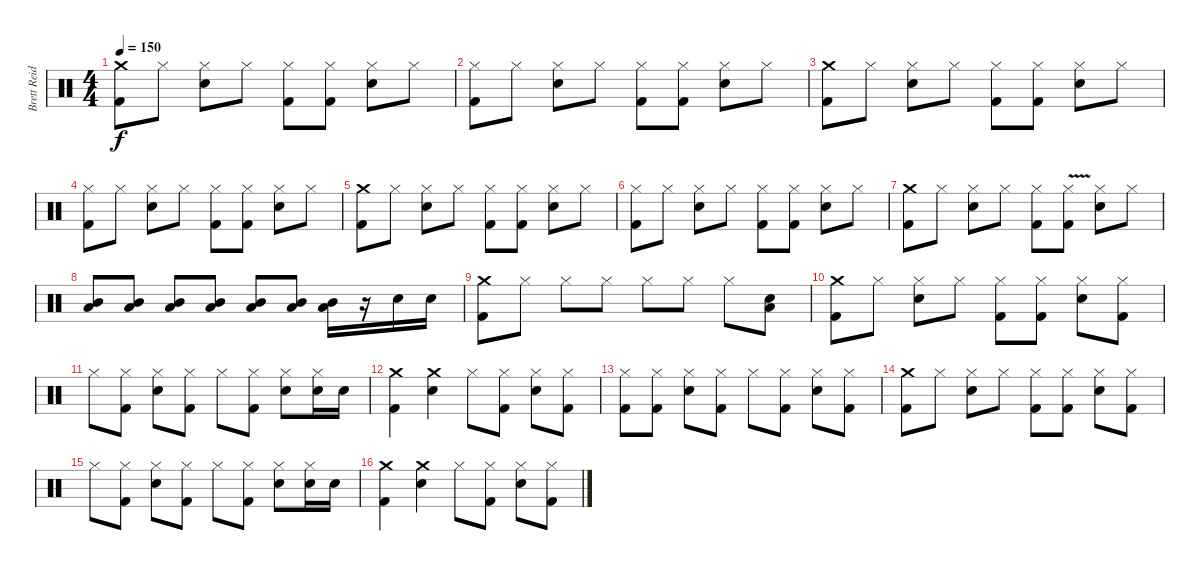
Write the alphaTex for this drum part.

\track ("Brett Reid" "Brett Reid") {instrument percussion}
\staff {score}
\articulation defaults
\ts (4 4)
\tempo 150
\clef neutral
\ks c
("Crash medium (hit)" "Kick (hit) 2").8{dy f} "Hi-Hat (closed)".8 ("Hi-Hat (closed)" "Snare (hit) 2").8 "Hi-Hat (closed)".8 ("Hi-Hat (closed)" "Kick (hit) 2").8 ("Hi-Hat (closed)" "Kick (hit) 2").8 ("Hi-Hat (closed)" "Snare (hit) 2").8 "Hi-Hat (closed)".8 |
("Hi-Hat (closed)" "Kick (hit) 2").8 "Hi-Hat (closed)".8 ("Hi-Hat (closed)" "Snare (hit) 2").8 "Hi-Hat (closed)".8 ("Hi-Hat (closed)" "Kick (hit) 2").8 ("Hi-Hat (closed)" "Kick (hit) 2").8 ("Hi-Hat (closed)" "Snare (hit) 2").8 "Hi-Hat (closed)".8 |
("Crash medium (hit)" "Kick (hit) 2").8 "Hi-Hat (closed)".8 ("Hi-Hat (closed)" "Snare (hit) 2").8 "Hi-Hat (closed)".8 ("Hi-Hat (closed)" "Kick (hit) 2").8 ("Hi-Hat (closed)" "Kick (hit) 2").8 ("Hi-Hat (closed)" "Snare (hit) 2").8 "Hi-Hat (closed)".8 |
("Hi-Hat (closed)" "Kick (hit) 2").8 "Hi-Hat (closed)".8 ("Hi-Hat (closed)" "Snare (hit) 2").8 "Hi-Hat (closed)".8 ("Hi-Hat (closed)" "Kick (hit) 2").8 ("Hi-Hat (closed)" "Kick (hit) 2").8 ("Hi-Hat (closed)" "Snare (hit) 2").8 "Hi-Hat (closed)".8 |
("Crash medium (hit)" "Kick (hit) 2").8 "Hi-Hat (closed)".8 ("Hi-Hat (closed)" "Snare (hit) 2").8 "Hi-Hat (closed)".8 ("Hi-Hat (closed)" "Kick (hit) 2").8 ("Hi-Hat (closed)" "Kick (hit) 2").8 ("Hi-Hat (closed)" "Snare (hit) 2").8 "Hi-Hat (closed)".8 |
("Hi-Hat (closed)" "Kick (hit) 2").8 "Hi-Hat (closed)".8 ("Hi-Hat (closed)" "Snare (hit) 2").8 "Hi-Hat (closed)".8 ("Hi-Hat (closed)" "Kick (hit) 2").8 ("Hi-Hat (closed)" "Kick (hit) 2").8 ("Hi-Hat (closed)" "Snare (hit) 2").8 "Hi-Hat (closed)".8 |
("Crash medium (hit)" "Kick (hit) 2").8 "Hi-Hat (closed)".8 ("Hi-Hat (closed)" "Snare (hit) 2").8 "Hi-Hat (closed)".8 ("Hi-Hat (closed)" "Kick (hit) 2").8 ("Hi-Hat (closed)" "Kick (hit) 2"{v}).8 ("Hi-Hat (closed)" "Snare (hit) 2").8 "Hi-Hat (closed)".8 |
("Mid Tom (hit)" "Low Floor Tom (hit)").8 ("Mid Tom (hit)" "Low Floor Tom (hit)").8 ("Mid Tom (hit)" "Low Floor Tom (hit)").8 ("Mid Tom (hit)" "Low Floor Tom (hit)").8 ("Mid Tom (hit)" "Low Floor Tom (hit)").8 ("Mid Tom (hit)" "Low Floor Tom (hit)").8 ("Mid Tom (hit)" "Low Floor Tom (hit)").16 r.16 "Snare (hit) 2".16 "Snare (hit) 2".16 |
("Crash medium (hit)" "Kick (hit) 2").8 "Hi-Hat (closed)".8 "Hi-Hat (closed)".8 "Hi-Hat (closed)".8 "Hi-Hat (closed)".8 "Hi-Hat (closed)".8 "Hi-Hat (closed)".8 ("Low Floor Tom (hit)" "Snare (hit) 2").8 |
("Crash medium (hit)" "Kick (hit) 2").8 "Hi-Hat (closed)".8 ("Hi-Hat (closed)" "Snare (hit) 2").8 "Hi-Hat (closed)".8 ("Hi-Hat (closed)" "Kick (hit) 2").8 ("Hi-Hat (closed)" "Kick (hit) 2").8 ("Hi-Hat (closed)" "Snare (hit) 2").8 ("Hi-Hat (closed)" "Kick (hit) 2").8 |
"Hi-Hat (closed)".8 ("Hi-Hat (closed)" "Kick (hit) 2").8 ("Hi-Hat (closed)" "Snare (hit) 2").8 ("Hi-Hat (closed)" "Kick (hit) 2").8 "Hi-Hat (closed)".8 ("Hi-Hat (closed)" "Kick (hit) 2").8 ("Hi-Hat (closed)" "Snare (hit) 2").8 ("Hi-Hat (closed)" "Snare (hit) 2").16 "Snare (hit) 2".16 |
("Crash medium (hit)" "Kick (hit) 2").4 ("Crash medium (hit)" "Snare (hit) 2").4 "Hi-Hat (closed)".8 ("Hi-Hat (closed)" "Kick (hit) 2").8 ("Hi-Hat (closed)" "Snare (hit) 2").8 ("Hi-Hat (closed)" "Kick (hit) 2").8 |
("Hi-Hat (closed)" "Kick (hit) 2").8 ("Hi-Hat (closed)" "Kick (hit) 2").8 ("Hi-Hat (closed)" "Snare (hit) 2").8 ("Hi-Hat (closed)" "Kick (hit) 2").8 "Hi-Hat (closed)".8 ("Hi-Hat (closed)" "Kick (hit) 2").8 ("Hi-Hat (closed)" "Snare (hit) 2").8 ("Hi-Hat (closed)" "Kick (hit) 2").8 |
("Crash medium (hit)" "Kick (hit) 2").8 "Hi-Hat (closed)".8 ("Hi-Hat (closed)" "Snare (hit) 2").8 "Hi-Hat (closed)".8 ("Hi-Hat (closed)" "Kick (hit) 2").8 ("Hi-Hat (closed)" "Kick (hit) 2").8 ("Hi-Hat (closed)" "Snare (hit) 2").8 ("Hi-Hat (closed)" "Kick (hit) 2").8 |
"Hi-Hat (closed)".8 ("Hi-Hat (closed)" "Kick (hit) 2").8 ("Hi-Hat (closed)" "Snare (hit) 2").8 ("Hi-Hat (closed)" "Kick (hit) 2").8 "Hi-Hat (closed)".8 ("Hi-Hat (closed)" "Kick (hit) 2").8 ("Hi-Hat (closed)" "Snare (hit) 2").8 ("Hi-Hat (closed)" "Snare (hit) 2").16 "Snare (hit) 2".16 |
("Crash medium (hit)" "Kick (hit) 2").4 ("Crash medium (hit)" "Snare (hit) 2").4 "Hi-Hat (closed)".8 ("Hi-Hat (closed)" "Kick (hit) 2").8 ("Hi-Hat (closed)" "Snare (hit) 2").8 ("Hi-Hat (closed)" "Kick (hit) 2").8
